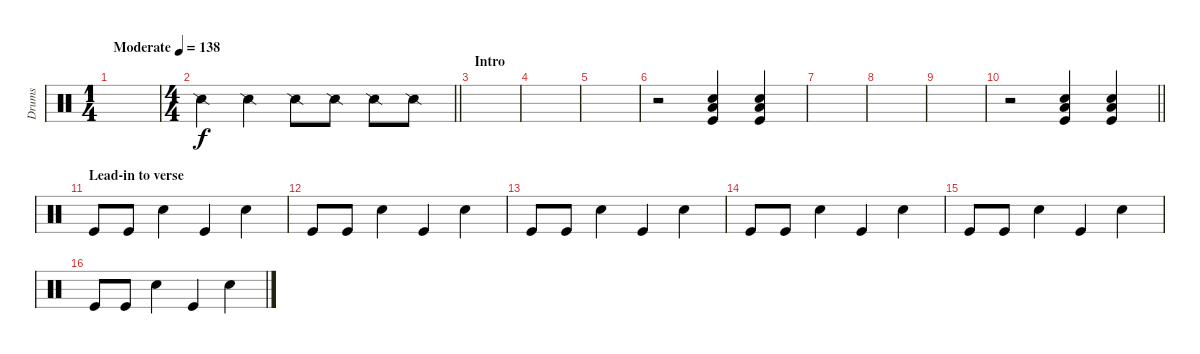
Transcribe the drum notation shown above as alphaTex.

\track ("Drums" "Drums") {instrument percussion}
\staff {score}
\articulation defaults
\ts (1 4)
\tempo (138 "Moderate")
\clef neutral
\ks c
|
\ts (4 4)
\barLineRight lightlight "Snare (side stick) 2".4 "Snare (side stick) 2".4 "Snare (side stick) 2".8 "Snare (side stick) 2".8 "Snare (side stick) 2".8 "Snare (side stick) 2".8
|
\section ("" "Intro")
|
|
|
r.2 ("Low Floor Tom (hit)" "Snare (hit) 2" "Kick (hit)").4 ("Low Floor Tom (hit)" "Snare (hit) 2" "Kick (hit)").4 |
|
|
|
\barLineRight lightlight
r.2 ("Low Floor Tom (hit)" "Snare (hit) 2" "Kick (hit)").4 ("Low Floor Tom (hit)" "Snare (hit) 2" "Kick (hit)").4 |
\section ("" "Lead-in to verse")
"Kick (hit)".8 "Kick (hit)".8 "Snare (hit) 2".4 "Kick (hit)".4 "Snare (hit) 2".4 |
"Kick (hit)".8 "Kick (hit)".8 "Snare (hit) 2".4 "Kick (hit)".4 "Snare (hit) 2".4 |
"Kick (hit)".8 "Kick (hit)".8 "Snare (hit) 2".4 "Kick (hit)".4 "Snare (hit) 2".4 |
"Kick (hit)".8 "Kick (hit)".8 "Snare (hit) 2".4 "Kick (hit)".4 "Snare (hit) 2".4 |
"Kick (hit)".8 "Kick (hit)".8 "Snare (hit) 2".4 "Kick (hit)".4 "Snare (hit) 2".4 |
"Kick (hit)".8 "Kick (hit)".8 "Snare (hit) 2".4 "Kick (hit)".4 "Snare (hit) 2".4
